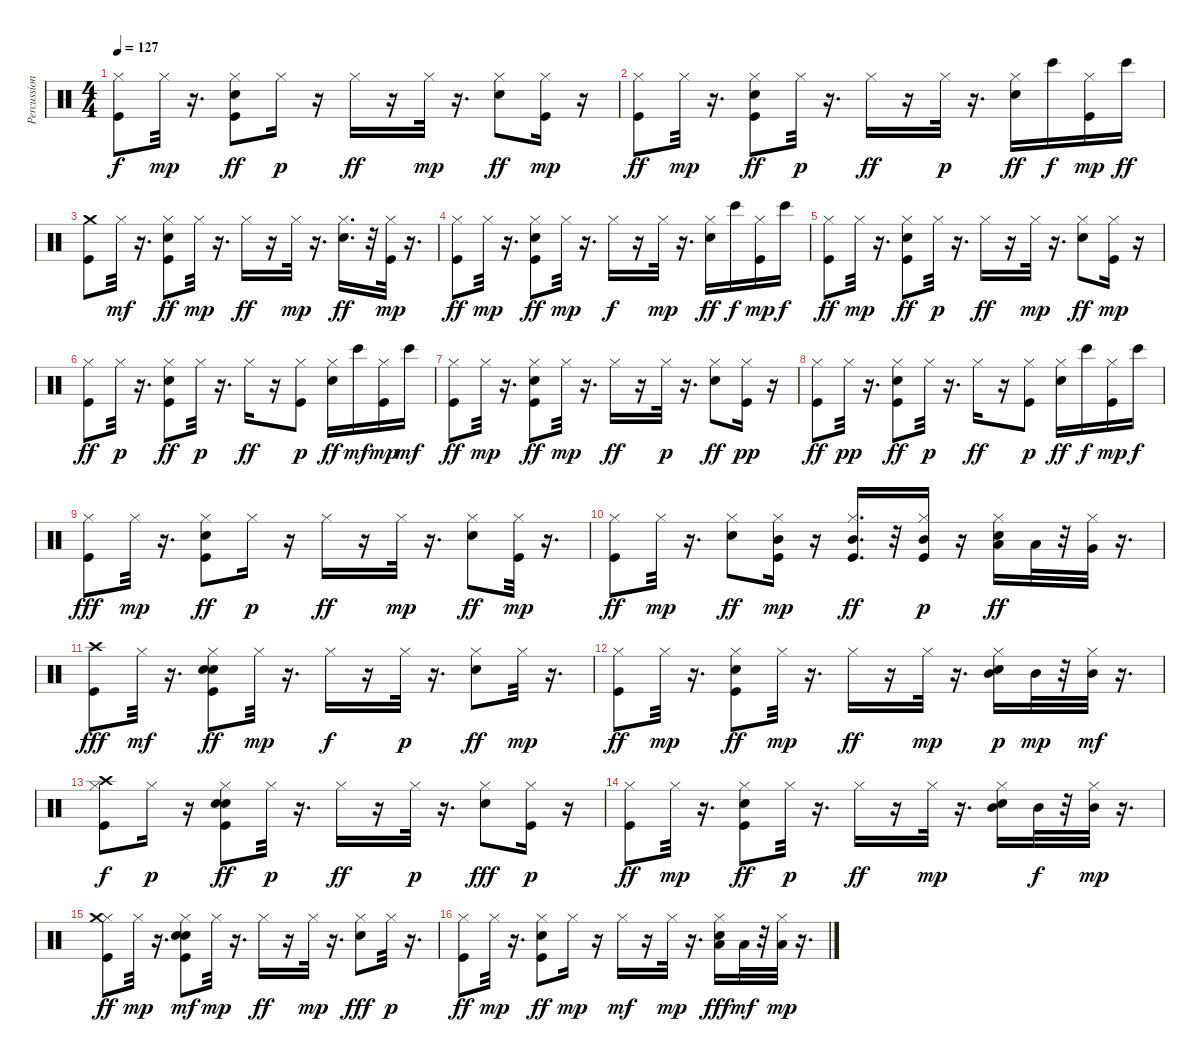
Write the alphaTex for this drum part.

\track ("Percussions (drums + hihats)" "Percussion") {instrument percussion}
\staff {score}
\articulation defaults
\ts (4 4)
\tempo 127
\clef neutral
\ks c
("Kick (hit)" "Hi-Hat (closed)").8{dy f} "Hi-Hat (closed)".32{dy mp} r.16{d} ("Kick (hit)" "Snare (hit) 2" "Hi-Hat (closed)").8{dy ff} "Hi-Hat (closed)".16{dy p} r.16 "Hi-Hat (closed)".16{dy ff} r.16 "Hi-Hat (closed)".32{dy mp} r.16{d} ("Snare (hit) 2" "Hi-Hat (closed)").8{dy ff} ("Kick (hit)" "Hi-Hat (closed)").16{dy mp} r.16 |
("Kick (hit)" "Hi-Hat (closed)").8{dy ff} "Hi-Hat (closed)".32{dy mp} r.16{d} ("Kick (hit)" "Snare (hit) 2" "Hi-Hat (closed)").8{dy ff} "Hi-Hat (closed)".32{dy p} r.16{d} "Hi-Hat (closed)".16{dy ff} r.16 "Hi-Hat (closed)".32{dy p} r.16{d} ("Snare (hit) 2" "Hi-Hat (closed)").16{dy ff} "Bongo High (hit)".16{dy f} ("Kick (hit)" "Hi-Hat (closed)").16{dy mp} "Bongo High (hit)".16{dy ff} |
("Kick (hit)" "Crash medium (hit)").8 "Hi-Hat (closed)".32{dy mf} r.16{d} ("Kick (hit)" "Snare (hit) 2" "Hi-Hat (closed)").8{dy ff} "Hi-Hat (closed)".32{dy mp} r.16{d} "Hi-Hat (closed)".16{dy ff} r.16 "Hi-Hat (closed)".32{dy mp} r.16{d} ("Snare (hit) 2" "Hi-Hat (closed)").16{d dy ff} r.32 ("Kick (hit)" "Hi-Hat (closed)").32{dy mp} r.16{d} |
("Kick (hit)" "Hi-Hat (closed)").8{dy ff} "Hi-Hat (closed)".32{dy mp} r.16{d} ("Kick (hit)" "Snare (hit) 2" "Hi-Hat (closed)").8{dy ff} "Hi-Hat (closed)".32{dy mp} r.16{d} "Hi-Hat (closed)".16{dy f} r.16 "Hi-Hat (closed)".32{dy mp} r.16{d} ("Snare (hit) 2" "Hi-Hat (closed)").16{dy ff} "Bongo High (hit)".16{dy f} ("Kick (hit)" "Hi-Hat (closed)").16{dy mp} "Bongo High (hit)".16{dy f} |
("Kick (hit)" "Hi-Hat (closed)").8{dy ff} "Hi-Hat (closed)".32{dy mp} r.16{d} ("Kick (hit)" "Snare (hit) 2" "Hi-Hat (closed)").8{dy ff} "Hi-Hat (closed)".32{dy p} r.16{d} "Hi-Hat (closed)".16{dy ff} r.16 "Hi-Hat (closed)".32{dy mp} r.16{d} ("Snare (hit) 2" "Hi-Hat (closed)").8{dy ff} ("Kick (hit)" "Hi-Hat (closed)").16{dy mp} r.16 |
("Kick (hit)" "Hi-Hat (closed)").8{dy ff} "Hi-Hat (closed)".32{dy p} r.16{d} ("Kick (hit)" "Snare (hit) 2" "Hi-Hat (closed)").8{dy ff} "Hi-Hat (closed)".32{dy p} r.16{d} "Hi-Hat (closed)".16{dy ff} r.16 ("Kick (hit)" "Hi-Hat (closed)").8{dy p} ("Snare (hit) 2" "Hi-Hat (closed)").16{dy ff} "Bongo High (hit)".16{dy mf} ("Kick (hit)" "Hi-Hat (closed)").16{dy mp} "Bongo High (hit)".16{dy mf} |
("Kick (hit)" "Hi-Hat (closed)").8{dy ff} "Hi-Hat (closed)".32{dy mp} r.16{d} ("Kick (hit)" "Snare (hit) 2" "Hi-Hat (closed)").8{dy ff} "Hi-Hat (closed)".32{dy mp} r.16{d} "Hi-Hat (closed)".16{dy ff} r.16 "Hi-Hat (closed)".32{dy p} r.16{d} ("Snare (hit) 2" "Hi-Hat (closed)").8{dy ff} ("Kick (hit)" "Hi-Hat (closed)").16{dy pp} r.16 |
("Kick (hit)" "Hi-Hat (closed)").8{dy ff} "Hi-Hat (closed)".32{dy pp} r.16{d} ("Kick (hit)" "Snare (hit) 2" "Hi-Hat (closed)").8{dy ff} "Hi-Hat (closed)".32{dy p} r.16{d} "Hi-Hat (closed)".16{dy ff} r.16 ("Kick (hit)" "Hi-Hat (closed)").8{dy p} ("Snare (hit) 2" "Hi-Hat (closed)").16{dy ff} "Bongo High (hit)".16{dy f} ("Kick (hit)" "Hi-Hat (closed)").16{dy mp} "Bongo High (hit)".16{dy f} |
("Kick (hit)" "Hi-Hat (closed)").8{dy fff} "Hi-Hat (closed)".32{dy mp} r.16{d} ("Kick (hit)" "Snare (hit) 2" "Hi-Hat (closed)").8{dy ff} "Hi-Hat (closed)".16{dy p} r.16 "Hi-Hat (closed)".16{dy ff} r.16 "Hi-Hat (closed)".32{dy mp} r.16{d} ("Snare (hit) 2" "Hi-Hat (closed)").8{dy ff} ("Kick (hit)" "Hi-Hat (closed)").32{dy mp} r.16{d} |
("Kick (hit)" "Hi-Hat (closed)").8{dy ff} "Hi-Hat (closed)".32{dy mp} r.16{d} ("Snare (hit) 2" "Hi-Hat (closed)").8{dy ff} ("Kick (hit)" "Hi-Hat (closed)" "Mid Tom (hit)").16{dy mp} r.16 ("Kick (hit)" "Hi-Hat (closed)" "Mid Tom (hit)").16{d dy ff} r.32 ("Kick (hit)" "Hi-Hat (closed)" "Mid Tom (hit)").16{dy p} r.16 ("Snare (hit) 2" "Hi-Hat (closed)" "Low Tom (hit)").16{dy ff} "Low Tom (hit)".32 r.32 ("Hi-Hat (closed)" "Very Low Tom (hit)").32 r.16{d} |
("Kick (hit)" "Crash high (hit)").8{dy fff} "Hi-Hat (closed)".32{dy mf} r.16{d} ("Kick (hit)" "Snare (hit) 2" "Electric Snare (hit)" "Hi-Hat (closed)").8{dy ff} "Hi-Hat (closed)".32{dy mp} r.16{d} "Hi-Hat (closed)".16{dy f} r.16 "Hi-Hat (closed)".32{dy p} r.16{d} ("Snare (hit) 2" "Hi-Hat (closed)").8{dy ff} "Hi-Hat (closed)".32{dy mp} r.16{d} |
("Kick (hit)" "Hi-Hat (closed)").8{dy ff} "Hi-Hat (closed)".32{dy mp} r.16{d} ("Kick (hit)" "Snare (hit) 2" "Hi-Hat (closed)").8{dy ff} "Hi-Hat (closed)".32{dy mp} r.16{d} "Hi-Hat (closed)".16{dy ff} r.16 "Hi-Hat (closed)".32{dy mp} r.16{d} ("Snare (hit) 2" "Hi-Hat (closed)" "Mid Tom (hit)").16{dy p} "Mid Tom (hit)".32{dy mp} r.32 ("Hi-Hat (closed)" "Mid Tom (hit)").32{dy mf} r.16{d} |
("Kick (hit)" "Hi-Hat (closed)" "Crash high (hit)").8{dy f} "Hi-Hat (closed)".16{dy p} r.16 ("Kick (hit)" "Snare (hit) 2" "Electric Snare (hit)" "Hi-Hat (closed)").8{dy ff} "Hi-Hat (closed)".32{dy p} r.16{d} "Hi-Hat (closed)".16{dy ff} r.16 "Hi-Hat (closed)".32{dy p} r.16{d} ("Snare (hit) 2" "Hi-Hat (closed)").8{dy fff} ("Kick (hit)" "Hi-Hat (closed)").16{dy p} r.16 |
("Kick (hit)" "Hi-Hat (closed)").8{dy ff} "Hi-Hat (closed)".32{dy mp} r.16{d} ("Kick (hit)" "Snare (hit) 2" "Hi-Hat (closed)").8{dy ff} "Hi-Hat (closed)".32{dy p} r.16{d} "Hi-Hat (closed)".16{dy ff} r.16 "Hi-Hat (closed)".32{dy mp} r.16{d} ("Snare (hit) 2" "Hi-Hat (closed)" "Mid Tom (hit)").16 "Mid Tom (hit)".32{dy f} r.32 ("Hi-Hat (closed)" "Mid Tom (hit)").32{dy mp} r.16{d} |
("Kick (hit)" "Hi-Hat (closed)" "Crash medium (hit)").8{dy ff} "Hi-Hat (closed)".32{dy mp} r.16{d} ("Kick (hit)" "Snare (hit) 2" "Electric Snare (hit)" "Hi-Hat (closed)").8{dy mf} "Hi-Hat (closed)".32{dy mp} r.16{d} "Hi-Hat (closed)".16{dy ff} r.16 "Hi-Hat (closed)".32{dy mp} r.16{d} ("Snare (hit) 2" "Hi-Hat (closed)").8{dy fff} "Hi-Hat (closed)".32{dy p} r.16{d} |
("Kick (hit)" "Hi-Hat (closed)").8{dy ff} "Hi-Hat (closed)".32{dy mp} r.16{d} ("Kick (hit)" "Snare (hit) 2" "Hi-Hat (closed)").8{dy ff} "Hi-Hat (closed)".16{dy mp} r.16 "Hi-Hat (closed)".16{dy mf} r.16 "Hi-Hat (closed)".32{dy mp} r.16{d} ("Snare (hit) 2" "Hi-Hat (closed)" "Low Tom (hit)").16{dy fff} "Low Tom (hit)".32{dy mf} r.32 ("Hi-Hat (closed)" "Low Tom (hit)").32{dy mp} r.16{d}
